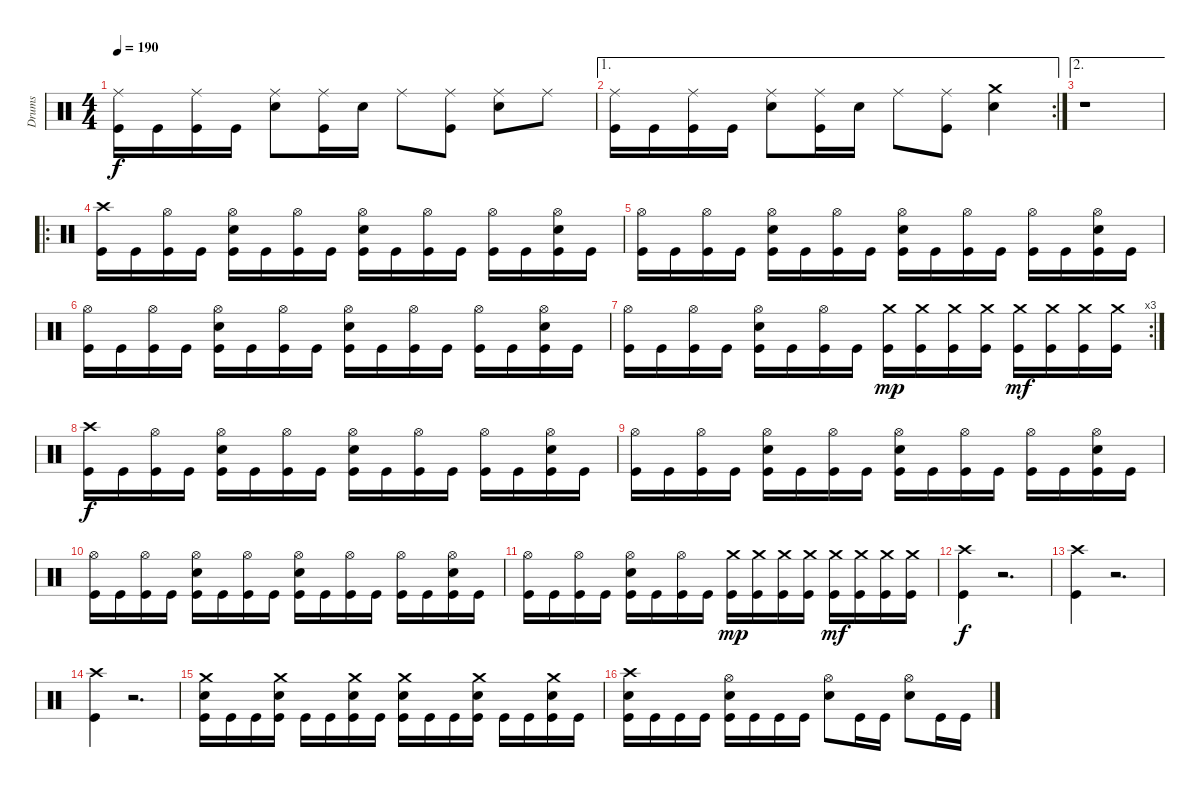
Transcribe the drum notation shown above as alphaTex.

\track ("Drums" "Drums") {instrument percussion}
\staff {score}
\articulation defaults
\ts (4 4)
\tempo 190
\clef neutral
\ks c
("Ride (middle)" "Kick (hit)").16{dy f} "Kick (hit)".16 ("Ride (middle)" "Kick (hit)").16 "Kick (hit)".16 ("Ride (middle)" "Electric Snare (hit)").8 ("Ride (middle)" "Kick (hit)").16 "Electric Snare (hit)".16 "Ride (middle)".8 ("Ride (middle)" "Kick (hit)").8 ("Ride (middle)" "Electric Snare (hit)").8 "Ride (middle)".8 |
\ae 1
\rc 2
("Ride (middle)" "Kick (hit)").16 "Kick (hit)".16 ("Ride (middle)" "Kick (hit)").16 "Kick (hit)".16 ("Ride (middle)" "Electric Snare (hit)").8 ("Ride (middle)" "Kick (hit)").16 "Electric Snare (hit)".16 "Ride (middle)".8 ("Ride (middle)" "Kick (hit)").8 ("Crash medium (hit)" "Electric Snare (hit)").4 |
\ae 2
r.1 |
\ro
("Crash high (hit)" "Kick (hit)").16 "Kick (hit)".16 ("Hi-Hat (open)" "Kick (hit)").16 "Kick (hit)".16 ("Hi-Hat (open)" "Electric Snare (hit)" "Kick (hit)").16 "Kick (hit)".16 ("Hi-Hat (open)" "Kick (hit)").16 "Kick (hit)".16 ("Hi-Hat (open)" "Electric Snare (hit)" "Kick (hit)").16 "Kick (hit)".16 ("Hi-Hat (open)" "Kick (hit)").16 "Kick (hit)".16 ("Hi-Hat (open)" "Kick (hit)").16 "Kick (hit)".16 ("Hi-Hat (open)" "Electric Snare (hit)" "Kick (hit)").16 "Kick (hit)".16 |
("Hi-Hat (open)" "Kick (hit)").16 "Kick (hit)".16 ("Hi-Hat (open)" "Kick (hit)").16 "Kick (hit)".16 ("Hi-Hat (open)" "Electric Snare (hit)" "Kick (hit)").16 "Kick (hit)".16 ("Hi-Hat (open)" "Kick (hit)").16 "Kick (hit)".16 ("Hi-Hat (open)" "Electric Snare (hit)" "Kick (hit)").16 "Kick (hit)".16 ("Hi-Hat (open)" "Kick (hit)").16 "Kick (hit)".16 ("Hi-Hat (open)" "Kick (hit)").16 "Kick (hit)".16 ("Hi-Hat (open)" "Electric Snare (hit)" "Kick (hit)").16 "Kick (hit)".16 |
("Hi-Hat (open)" "Kick (hit)").16 "Kick (hit)".16 ("Hi-Hat (open)" "Kick (hit)").16 "Kick (hit)".16 ("Hi-Hat (open)" "Electric Snare (hit)" "Kick (hit)").16 "Kick (hit)".16 ("Hi-Hat (open)" "Kick (hit)").16 "Kick (hit)".16 ("Hi-Hat (open)" "Electric Snare (hit)" "Kick (hit)").16 "Kick (hit)".16 ("Hi-Hat (open)" "Kick (hit)").16 "Kick (hit)".16 ("Hi-Hat (open)" "Kick (hit)").16 "Kick (hit)".16 ("Hi-Hat (open)" "Electric Snare (hit)" "Kick (hit)").16 "Kick (hit)".16 |
\rc 3
("Hi-Hat (open)" "Kick (hit)").16 "Kick (hit)".16 ("Hi-Hat (open)" "Kick (hit)").16 "Kick (hit)".16 ("Hi-Hat (open)" "Electric Snare (hit)" "Kick (hit)").16 "Kick (hit)".16 ("Hi-Hat (open)" "Kick (hit)").16 "Kick (hit)".16 ("Crash medium (hit)" "Kick (hit)").16{dy mp} ("Crash medium (hit)" "Kick (hit)").16 ("Crash medium (hit)" "Kick (hit)").16 ("Crash medium (hit)" "Kick (hit)").16 ("Crash medium (hit)" "Kick (hit)").16{dy mf} ("Crash medium (hit)" "Kick (hit)").16 ("Crash medium (hit)" "Kick (hit)").16 ("Crash medium (hit)" "Kick (hit)").16 |
("Crash high (hit)" "Kick (hit)").16{dy f} "Kick (hit)".16 ("Hi-Hat (open)" "Kick (hit)").16 "Kick (hit)".16 ("Hi-Hat (open)" "Electric Snare (hit)" "Kick (hit)").16 "Kick (hit)".16 ("Hi-Hat (open)" "Kick (hit)").16 "Kick (hit)".16 ("Hi-Hat (open)" "Electric Snare (hit)" "Kick (hit)").16 "Kick (hit)".16 ("Hi-Hat (open)" "Kick (hit)").16 "Kick (hit)".16 ("Hi-Hat (open)" "Kick (hit)").16 "Kick (hit)".16 ("Hi-Hat (open)" "Electric Snare (hit)" "Kick (hit)").16 "Kick (hit)".16 |
("Hi-Hat (open)" "Kick (hit)").16 "Kick (hit)".16 ("Hi-Hat (open)" "Kick (hit)").16 "Kick (hit)".16 ("Hi-Hat (open)" "Electric Snare (hit)" "Kick (hit)").16 "Kick (hit)".16 ("Hi-Hat (open)" "Kick (hit)").16 "Kick (hit)".16 ("Hi-Hat (open)" "Electric Snare (hit)" "Kick (hit)").16 "Kick (hit)".16 ("Hi-Hat (open)" "Kick (hit)").16 "Kick (hit)".16 ("Hi-Hat (open)" "Kick (hit)").16 "Kick (hit)".16 ("Hi-Hat (open)" "Electric Snare (hit)" "Kick (hit)").16 "Kick (hit)".16 |
("Hi-Hat (open)" "Kick (hit)").16 "Kick (hit)".16 ("Hi-Hat (open)" "Kick (hit)").16 "Kick (hit)".16 ("Hi-Hat (open)" "Electric Snare (hit)" "Kick (hit)").16 "Kick (hit)".16 ("Hi-Hat (open)" "Kick (hit)").16 "Kick (hit)".16 ("Hi-Hat (open)" "Electric Snare (hit)" "Kick (hit)").16 "Kick (hit)".16 ("Hi-Hat (open)" "Kick (hit)").16 "Kick (hit)".16 ("Hi-Hat (open)" "Kick (hit)").16 "Kick (hit)".16 ("Hi-Hat (open)" "Electric Snare (hit)" "Kick (hit)").16 "Kick (hit)".16 |
("Hi-Hat (open)" "Kick (hit)").16 "Kick (hit)".16 ("Hi-Hat (open)" "Kick (hit)").16 "Kick (hit)".16 ("Hi-Hat (open)" "Electric Snare (hit)" "Kick (hit)").16 "Kick (hit)".16 ("Hi-Hat (open)" "Kick (hit)").16 "Kick (hit)".16 ("Crash medium (hit)" "Kick (hit)").16{dy mp} ("Crash medium (hit)" "Kick (hit)").16 ("Crash medium (hit)" "Kick (hit)").16 ("Crash medium (hit)" "Kick (hit)").16 ("Crash medium (hit)" "Kick (hit)").16{dy mf} ("Crash medium (hit)" "Kick (hit)").16 ("Crash medium (hit)" "Kick (hit)").16 ("Crash medium (hit)" "Kick (hit)").16 |
("Crash high (hit)" "Kick (hit)").4{dy f} r.2{d volume 6} |
("Crash high (hit)" "Kick (hit)").4{volume 16} r.2{d volume 6} |
("Crash high (hit)" "Kick (hit)").4{volume 16} r.2{d volume 6} |
("Crash medium (hit)" "Electric Snare (hit)" "Kick (hit)").16{volume 16} "Kick (hit)".16 "Kick (hit)".16 ("Crash medium (hit)" "Electric Snare (hit)" "Kick (hit)").16 "Kick (hit)".16 "Kick (hit)".16 ("Crash medium (hit)" "Electric Snare (hit)" "Kick (hit)").16 "Kick (hit)".16 ("Crash medium (hit)" "Electric Snare (hit)" "Kick (hit)").16 "Kick (hit)".16 "Kick (hit)".16 ("Crash medium (hit)" "Electric Snare (hit)" "Kick (hit)").16 "Kick (hit)".16 "Kick (hit)".16 ("Crash medium (hit)" "Electric Snare (hit)" "Kick (hit)").16 "Kick (hit)".16 |
("Crash high (hit)" "Electric Snare (hit)" "Kick (hit)").16 "Kick (hit)".16 "Kick (hit)".16 "Kick (hit)".16 ("Hi-Hat (open)" "Electric Snare (hit)" "Kick (hit)").16 "Kick (hit)".16 "Kick (hit)".16 "Kick (hit)".16 ("Hi-Hat (open)" "Electric Snare (hit)").8 "Kick (hit)".16 "Kick (hit)".16 ("Hi-Hat (open)" "Electric Snare (hit)").8 "Kick (hit)".16 "Kick (hit)".16
